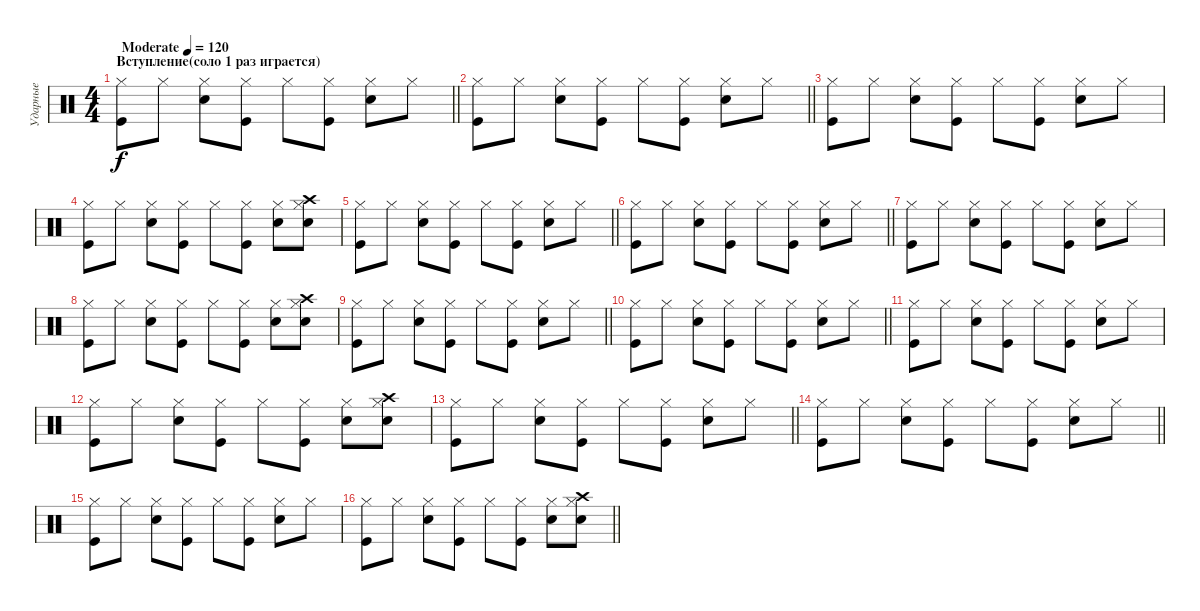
\track ("Ударные" "Ударные") {instrument percussion}
\staff {score}
\articulation defaults
\ts (4 4)
\section ("" "Вступление(соло 1 раз играется)")
\tempo (120 "Moderate")
\clef neutral
\barLineRight lightlight
\ks c
("Kick (hit)" "Hi-Hat (closed)").8{dy f} "Hi-Hat (closed)".8 ("Electric Snare (hit)" "Hi-Hat (closed)").8 ("Kick (hit)" "Hi-Hat (closed)").8 "Hi-Hat (closed)".8 ("Kick (hit)" "Hi-Hat (closed)").8 ("Electric Snare (hit)" "Hi-Hat (closed)").8 "Hi-Hat (closed)".8 |
\barLineRight lightlight
("Kick (hit)" "Hi-Hat (closed)").8 "Hi-Hat (closed)".8 ("Electric Snare (hit)" "Hi-Hat (closed)").8 ("Kick (hit)" "Hi-Hat (closed)").8 "Hi-Hat (closed)".8 ("Kick (hit)" "Hi-Hat (closed)").8 ("Electric Snare (hit)" "Hi-Hat (closed)").8 "Hi-Hat (closed)".8 |
("Kick (hit)" "Hi-Hat (closed)").8 "Hi-Hat (closed)".8 ("Electric Snare (hit)" "Hi-Hat (closed)").8 ("Kick (hit)" "Hi-Hat (closed)").8 "Hi-Hat (closed)".8 ("Kick (hit)" "Hi-Hat (closed)").8 ("Electric Snare (hit)" "Hi-Hat (closed)").8 "Hi-Hat (closed)".8 |
("Kick (hit)" "Hi-Hat (closed)").8 "Hi-Hat (closed)".8 ("Electric Snare (hit)" "Hi-Hat (closed)").8 ("Kick (hit)" "Hi-Hat (closed)").8 "Hi-Hat (closed)".8 ("Kick (hit)" "Hi-Hat (closed)").8 ("Electric Snare (hit)" "Hi-Hat (closed)").8 ("Snare (hit) 2" "Crash high (hit)" "Hi-Hat (closed)").8 |
\barLineRight lightlight
("Kick (hit)" "Hi-Hat (closed)").8 "Hi-Hat (closed)".8 ("Electric Snare (hit)" "Hi-Hat (closed)").8 ("Kick (hit)" "Hi-Hat (closed)").8 "Hi-Hat (closed)".8 ("Kick (hit)" "Hi-Hat (closed)").8 ("Electric Snare (hit)" "Hi-Hat (closed)").8 "Hi-Hat (closed)".8 |
\barLineRight lightlight
("Kick (hit)" "Hi-Hat (closed)").8 "Hi-Hat (closed)".8 ("Electric Snare (hit)" "Hi-Hat (closed)").8 ("Kick (hit)" "Hi-Hat (closed)").8 "Hi-Hat (closed)".8 ("Kick (hit)" "Hi-Hat (closed)").8 ("Electric Snare (hit)" "Hi-Hat (closed)").8 "Hi-Hat (closed)".8 |
("Kick (hit)" "Hi-Hat (closed)").8 "Hi-Hat (closed)".8 ("Electric Snare (hit)" "Hi-Hat (closed)").8 ("Kick (hit)" "Hi-Hat (closed)").8 "Hi-Hat (closed)".8 ("Kick (hit)" "Hi-Hat (closed)").8 ("Electric Snare (hit)" "Hi-Hat (closed)").8 "Hi-Hat (closed)".8 |
("Kick (hit)" "Hi-Hat (closed)").8 "Hi-Hat (closed)".8 ("Electric Snare (hit)" "Hi-Hat (closed)").8 ("Kick (hit)" "Hi-Hat (closed)").8 "Hi-Hat (closed)".8 ("Kick (hit)" "Hi-Hat (closed)").8 ("Electric Snare (hit)" "Hi-Hat (closed)").8 ("Snare (hit) 2" "Crash high (hit)" "Hi-Hat (closed)").8 |
\barLineRight lightlight
("Kick (hit)" "Hi-Hat (closed)").8 "Hi-Hat (closed)".8 ("Electric Snare (hit)" "Hi-Hat (closed)").8 ("Kick (hit)" "Hi-Hat (closed)").8 "Hi-Hat (closed)".8 ("Kick (hit)" "Hi-Hat (closed)").8 ("Electric Snare (hit)" "Hi-Hat (closed)").8 "Hi-Hat (closed)".8 |
\barLineRight lightlight
("Kick (hit)" "Hi-Hat (closed)").8 "Hi-Hat (closed)".8 ("Electric Snare (hit)" "Hi-Hat (closed)").8 ("Kick (hit)" "Hi-Hat (closed)").8 "Hi-Hat (closed)".8 ("Kick (hit)" "Hi-Hat (closed)").8 ("Electric Snare (hit)" "Hi-Hat (closed)").8 "Hi-Hat (closed)".8 |
("Kick (hit)" "Hi-Hat (closed)").8 "Hi-Hat (closed)".8 ("Electric Snare (hit)" "Hi-Hat (closed)").8 ("Kick (hit)" "Hi-Hat (closed)").8 "Hi-Hat (closed)".8 ("Kick (hit)" "Hi-Hat (closed)").8 ("Electric Snare (hit)" "Hi-Hat (closed)").8 "Hi-Hat (closed)".8 |
("Kick (hit)" "Hi-Hat (closed)").8 "Hi-Hat (closed)".8 ("Electric Snare (hit)" "Hi-Hat (closed)").8 ("Kick (hit)" "Hi-Hat (closed)").8 "Hi-Hat (closed)".8 ("Kick (hit)" "Hi-Hat (closed)").8 ("Electric Snare (hit)" "Hi-Hat (closed)").8 ("Snare (hit) 2" "Crash high (hit)" "Hi-Hat (closed)").8 |
\barLineRight lightlight
("Kick (hit)" "Hi-Hat (closed)").8 "Hi-Hat (closed)".8 ("Electric Snare (hit)" "Hi-Hat (closed)").8 ("Kick (hit)" "Hi-Hat (closed)").8 "Hi-Hat (closed)".8 ("Kick (hit)" "Hi-Hat (closed)").8 ("Electric Snare (hit)" "Hi-Hat (closed)").8 "Hi-Hat (closed)".8 |
\barLineRight lightlight
("Kick (hit)" "Hi-Hat (closed)").8 "Hi-Hat (closed)".8 ("Electric Snare (hit)" "Hi-Hat (closed)").8 ("Kick (hit)" "Hi-Hat (closed)").8 "Hi-Hat (closed)".8 ("Kick (hit)" "Hi-Hat (closed)").8 ("Electric Snare (hit)" "Hi-Hat (closed)").8 "Hi-Hat (closed)".8 |
("Kick (hit)" "Hi-Hat (closed)").8 "Hi-Hat (closed)".8 ("Electric Snare (hit)" "Hi-Hat (closed)").8 ("Kick (hit)" "Hi-Hat (closed)").8 "Hi-Hat (closed)".8 ("Kick (hit)" "Hi-Hat (closed)").8 ("Electric Snare (hit)" "Hi-Hat (closed)").8 "Hi-Hat (closed)".8 |
\barLineRight lightlight
("Kick (hit)" "Hi-Hat (closed)").8 "Hi-Hat (closed)".8 ("Electric Snare (hit)" "Hi-Hat (closed)").8 ("Kick (hit)" "Hi-Hat (closed)").8 "Hi-Hat (closed)".8 ("Kick (hit)" "Hi-Hat (closed)").8 ("Electric Snare (hit)" "Hi-Hat (closed)").8 ("Snare (hit) 2" "Crash high (hit)" "Hi-Hat (closed)").8
